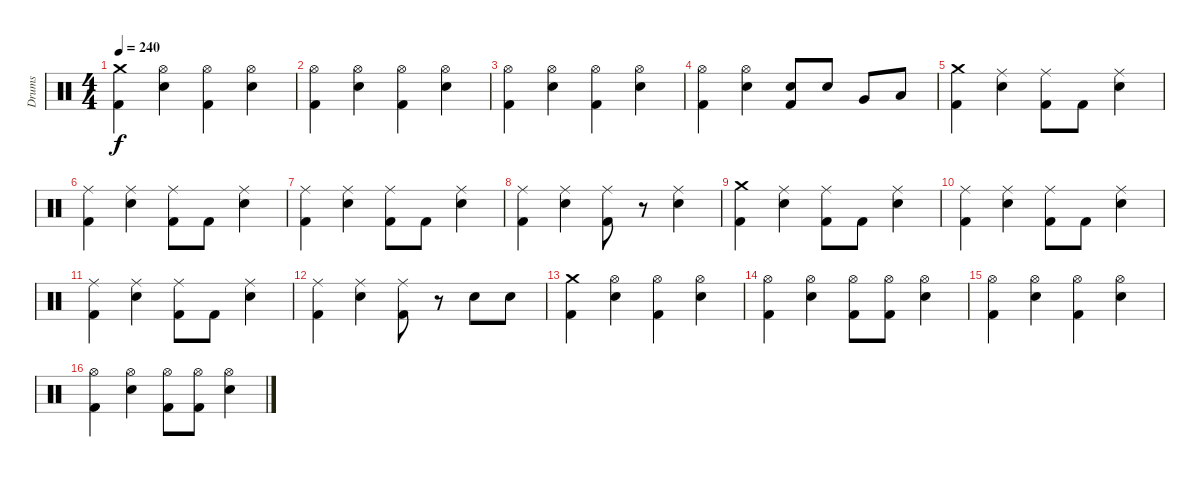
\track ("Drums" "Drums") {instrument percussion}
\staff {score}
\articulation defaults
\ts (4 4)
\tempo 240
\clef neutral
\ks c
("Crash medium (hit)" "Kick (hit) 2").4{dy f} ("Hi-Hat (open)" "Snare (hit) 2").4 ("Hi-Hat (open)" "Kick (hit) 2").4 ("Hi-Hat (open)" "Snare (hit) 2").4 |
("Hi-Hat (open)" "Kick (hit) 2").4 ("Hi-Hat (open)" "Snare (hit) 2").4 ("Hi-Hat (open)" "Kick (hit) 2").4 ("Hi-Hat (open)" "Snare (hit) 2").4 |
("Hi-Hat (open)" "Kick (hit) 2").4 ("Hi-Hat (open)" "Snare (hit) 2").4 ("Hi-Hat (open)" "Kick (hit) 2").4 ("Hi-Hat (open)" "Snare (hit) 2").4 |
("Hi-Hat (open)" "Kick (hit) 2").4 ("Hi-Hat (open)" "Snare (hit) 2").4 ("Snare (hit) 2" "Kick (hit) 2").8 "Snare (hit) 2".8 "Very Low Tom (hit)".8 "Low Tom (hit)".8 |
("Crash medium (hit)" "Kick (hit) 2").4 ("Ride (middle)" "Snare (hit) 2").4 ("Ride (middle)" "Kick (hit) 2").8 "Kick (hit) 2".8 ("Ride (middle)" "Snare (hit) 2").4 |
("Ride (middle)" "Kick (hit) 2").4 ("Ride (middle)" "Snare (hit) 2").4 ("Ride (middle)" "Kick (hit) 2").8 "Kick (hit) 2".8 ("Ride (middle)" "Snare (hit) 2").4 |
("Ride (middle)" "Kick (hit) 2").4 ("Ride (middle)" "Snare (hit) 2").4 ("Ride (middle)" "Kick (hit) 2").8 "Kick (hit) 2".8 ("Ride (middle)" "Snare (hit) 2").4 |
("Ride (middle)" "Kick (hit) 2").4 ("Ride (middle)" "Snare (hit) 2").4 ("Ride (middle)" "Kick (hit) 2").8 r.8 ("Ride (middle)" "Snare (hit) 2").4 |
("Crash medium (hit)" "Kick (hit) 2").4 ("Ride (middle)" "Snare (hit) 2").4 ("Ride (middle)" "Kick (hit) 2").8 "Kick (hit) 2".8 ("Ride (middle)" "Snare (hit) 2").4 |
("Ride (middle)" "Kick (hit) 2").4 ("Ride (middle)" "Snare (hit) 2").4 ("Ride (middle)" "Kick (hit) 2").8 "Kick (hit) 2".8 ("Ride (middle)" "Snare (hit) 2").4 |
("Ride (middle)" "Kick (hit) 2").4 ("Ride (middle)" "Snare (hit) 2").4 ("Ride (middle)" "Kick (hit) 2").8 "Kick (hit) 2".8 ("Ride (middle)" "Snare (hit) 2").4 |
("Ride (middle)" "Kick (hit) 2").4 ("Ride (middle)" "Snare (hit) 2").4 ("Ride (middle)" "Kick (hit) 2").8 r.8 "Snare (hit) 2".8 "Snare (hit) 2".8 |
("Crash medium (hit)" "Kick (hit) 2").4 ("Hi-Hat (open)" "Snare (hit) 2").4 ("Hi-Hat (open)" "Kick (hit) 2").4 ("Hi-Hat (open)" "Snare (hit) 2").4 |
("Hi-Hat (open)" "Kick (hit) 2").4 ("Hi-Hat (open)" "Snare (hit) 2").4 ("Hi-Hat (open)" "Kick (hit) 2").8 ("Hi-Hat (open)" "Kick (hit) 2").8 ("Hi-Hat (open)" "Snare (hit) 2").4 |
("Hi-Hat (open)" "Kick (hit) 2").4 ("Hi-Hat (open)" "Snare (hit) 2").4 ("Hi-Hat (open)" "Kick (hit) 2").4 ("Hi-Hat (open)" "Snare (hit) 2").4 |
("Hi-Hat (open)" "Kick (hit) 2").4 ("Hi-Hat (open)" "Snare (hit) 2").4 ("Hi-Hat (open)" "Kick (hit) 2").8 ("Hi-Hat (open)" "Kick (hit) 2").8 ("Hi-Hat (open)" "Snare (hit) 2").4
